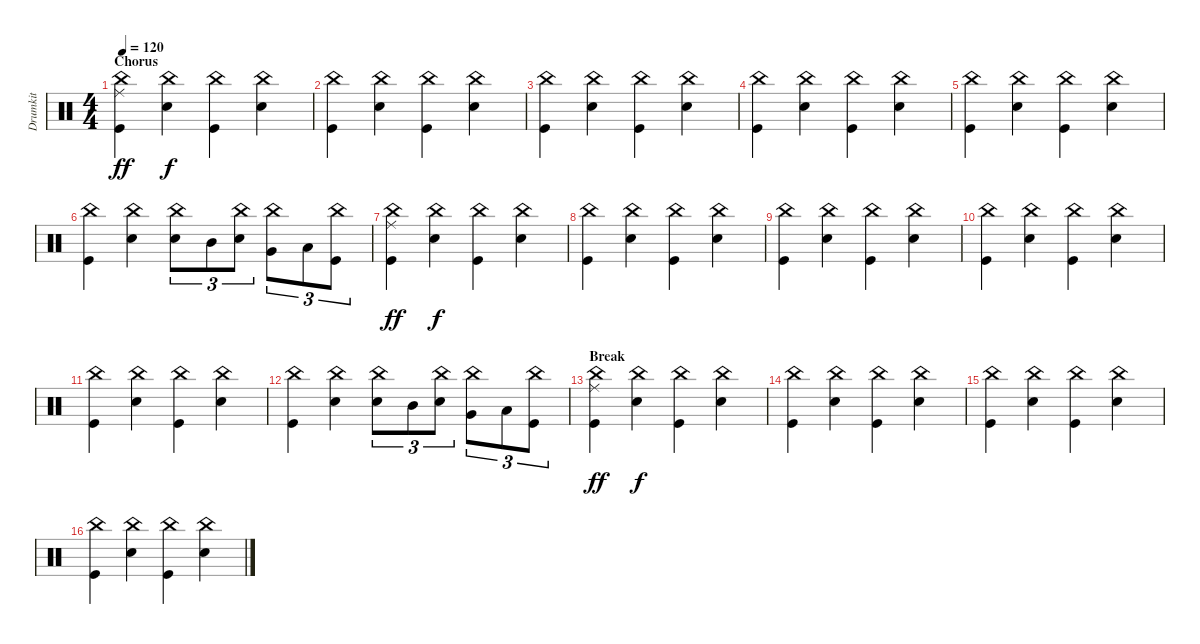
\track ("Drumkit" "Drumkit") {instrument percussion}
\staff {score}
\articulation defaults
\ts (4 4)
\section ("" "Chorus")
\tempo 120
\clef neutral
\ks c
("Kick (hit)" "China (hit)" "Ride (middle)").4{dy ff} ("Snare (hit) 2" "China (hit)").4{dy f} ("Kick (hit)" "China (hit)").4 ("Snare (hit) 2" "China (hit)").4 |
("Kick (hit)" "China (hit)").4 ("Snare (hit) 2" "China (hit)").4 ("Kick (hit)" "China (hit)").4 ("Snare (hit) 2" "China (hit)").4 |
("Kick (hit)" "China (hit)").4 ("Snare (hit) 2" "China (hit)").4 ("Kick (hit)" "China (hit)").4 ("Snare (hit) 2" "China (hit)").4 |
("Kick (hit)" "China (hit)").4 ("Snare (hit) 2" "China (hit)").4 ("Kick (hit)" "China (hit)").4 ("Snare (hit) 2" "China (hit)").4 |
("Kick (hit)" "China (hit)").4 ("Snare (hit) 2" "China (hit)").4 ("Kick (hit)" "China (hit)").4 ("Snare (hit) 2" "China (hit)").4 |
("Kick (hit)" "China (hit)").4 ("Snare (hit) 2" "China (hit)").4 ("Snare (hit) 2" "China (hit)").8{tu (3 2)} "Mid Tom (hit)".8{tu (3 2)} ("Snare (hit) 2" "China (hit)").8{tu (3 2)} ("Very Low Tom (hit)" "China (hit)").8{tu (3 2)} "Low Floor Tom (hit)".8{tu (3 2)} ("Kick (hit)" "China (hit)").8{tu (3 2)} |
("Kick (hit)" "China (hit)" "Ride (middle)").4{dy ff} ("Snare (hit) 2" "China (hit)").4{dy f} ("Kick (hit)" "China (hit)").4 ("Snare (hit) 2" "China (hit)").4 |
("Kick (hit)" "China (hit)").4 ("Snare (hit) 2" "China (hit)").4 ("Kick (hit)" "China (hit)").4 ("Snare (hit) 2" "China (hit)").4 |
("Kick (hit)" "China (hit)").4 ("Snare (hit) 2" "China (hit)").4 ("Kick (hit)" "China (hit)").4 ("Snare (hit) 2" "China (hit)").4 |
("Kick (hit)" "China (hit)").4 ("Snare (hit) 2" "China (hit)").4 ("Kick (hit)" "China (hit)").4 ("Snare (hit) 2" "China (hit)").4 |
("Kick (hit)" "China (hit)").4 ("Snare (hit) 2" "China (hit)").4 ("Kick (hit)" "China (hit)").4 ("Snare (hit) 2" "China (hit)").4 |
("Kick (hit)" "China (hit)").4 ("Snare (hit) 2" "China (hit)").4 ("Snare (hit) 2" "China (hit)").8{tu (3 2)} "Mid Tom (hit)".8{tu (3 2)} ("Snare (hit) 2" "China (hit)").8{tu (3 2)} ("Very Low Tom (hit)" "China (hit)").8{tu (3 2)} "Low Floor Tom (hit)".8{tu (3 2)} ("Kick (hit)" "China (hit)").8{tu (3 2)} |
\section ("" "Break")
("Kick (hit)" "China (hit)" "Ride (middle)").4{dy ff} ("Snare (hit) 2" "China (hit)").4{dy f} ("Kick (hit)" "China (hit)").4 ("Snare (hit) 2" "China (hit)").4 |
("Kick (hit)" "China (hit)").4 ("Snare (hit) 2" "China (hit)").4 ("Kick (hit)" "China (hit)").4 ("Snare (hit) 2" "China (hit)").4 |
("Kick (hit)" "China (hit)").4 ("Snare (hit) 2" "China (hit)").4 ("Kick (hit)" "China (hit)").4 ("Snare (hit) 2" "China (hit)").4 |
("Kick (hit)" "China (hit)").4 ("Snare (hit) 2" "China (hit)").4 ("Kick (hit)" "China (hit)").4 ("Snare (hit) 2" "China (hit)").4
